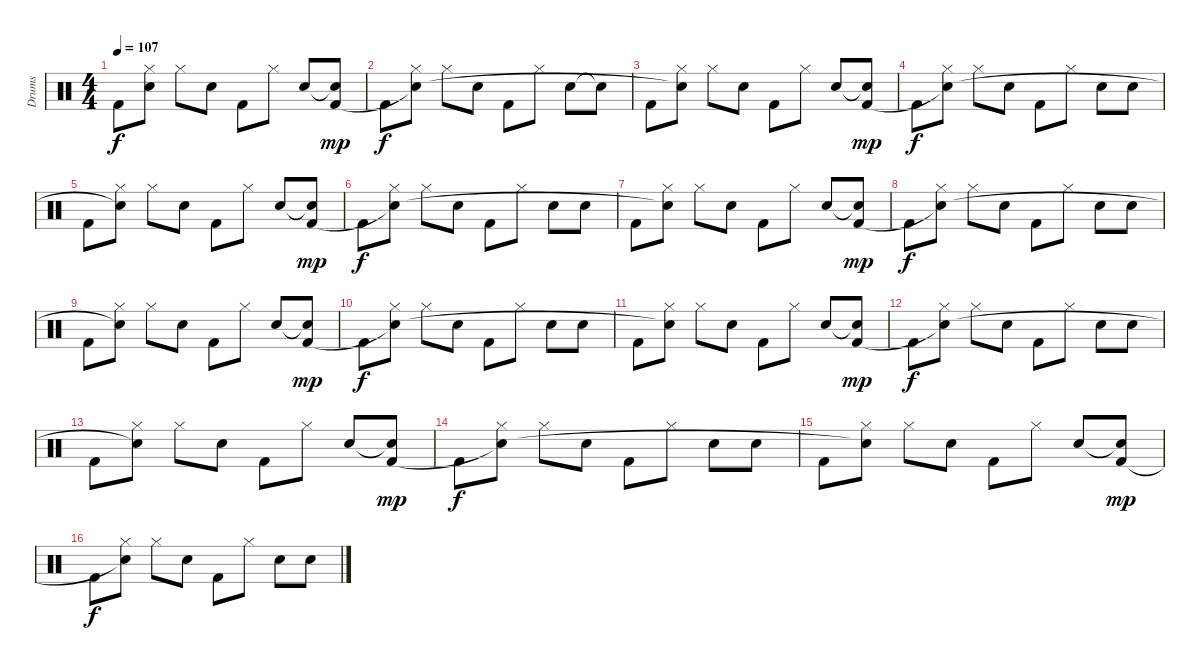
\track ("Drums" "Drums") {instrument percussion}
\staff {score}
\articulation defaults
\ts (4 4)
\tempo 107
\clef neutral
\ks c "Kick (hit) 2".8{dy f}
("Hi-Hat (closed)" "Snare (hit)"{t}).8 "Hi-Hat (closed)".8 "Electric Snare (hit)".8 "Kick (hit) 2".8 "Hi-Hat (closed)".8 "Electric Snare (hit)".8 ("Snare (hit)"{t} "Kick (hit) 2").8{dy mp} |
"Kick (hit) 2".8{dy f} ("Hi-Hat (closed)" "Snare (hit)"{t}).8 "Hi-Hat (closed)".8 "Electric Snare (hit)".8 "Kick (hit) 2".8 "Hi-Hat (closed)".8 "Electric Snare (hit)".8 "Snare (hit)"{t}.8 |
"Kick (hit) 2".8 ("Hi-Hat (closed)" "Snare (hit)"{t}).8 "Hi-Hat (closed)".8 "Electric Snare (hit)".8 "Kick (hit) 2".8 "Hi-Hat (closed)".8 "Electric Snare (hit)".8 ("Snare (hit)"{t} "Kick (hit) 2").8{dy mp} |
"Kick (hit) 2".8{dy f} ("Hi-Hat (closed)" "Snare (hit)"{t}).8 "Hi-Hat (closed)".8 "Electric Snare (hit)".8 "Kick (hit) 2".8 "Hi-Hat (closed)".8 "Electric Snare (hit)".8 "Electric Snare (hit)".8 |
"Kick (hit) 2".8 ("Hi-Hat (closed)" "Snare (hit)"{t}).8 "Hi-Hat (closed)".8 "Electric Snare (hit)".8 "Kick (hit) 2".8 "Hi-Hat (closed)".8 "Electric Snare (hit)".8 ("Snare (hit)"{t} "Kick (hit) 2").8{dy mp} |
"Kick (hit) 2".8{dy f} ("Hi-Hat (closed)" "Snare (hit)"{t}).8 "Hi-Hat (closed)".8 "Electric Snare (hit)".8 "Kick (hit) 2".8 "Hi-Hat (closed)".8 "Electric Snare (hit)".8 "Electric Snare (hit)".8 |
"Kick (hit) 2".8 ("Hi-Hat (closed)" "Snare (hit)"{t}).8 "Hi-Hat (closed)".8 "Electric Snare (hit)".8 "Kick (hit) 2".8 "Hi-Hat (closed)".8 "Electric Snare (hit)".8 ("Snare (hit)"{t} "Kick (hit) 2").8{dy mp} |
"Kick (hit) 2".8{dy f} ("Hi-Hat (closed)" "Snare (hit)"{t}).8 "Hi-Hat (closed)".8 "Electric Snare (hit)".8 "Kick (hit) 2".8 "Hi-Hat (closed)".8 "Electric Snare (hit)".8 "Electric Snare (hit)".8 |
"Kick (hit) 2".8 ("Hi-Hat (closed)" "Snare (hit)"{t}).8 "Hi-Hat (closed)".8 "Electric Snare (hit)".8 "Kick (hit) 2".8 "Hi-Hat (closed)".8 "Electric Snare (hit)".8 ("Snare (hit)"{t} "Kick (hit) 2").8{dy mp} |
"Kick (hit) 2".8{dy f} ("Hi-Hat (closed)" "Snare (hit)"{t}).8 "Hi-Hat (closed)".8 "Electric Snare (hit)".8 "Kick (hit) 2".8 "Hi-Hat (closed)".8 "Electric Snare (hit)".8 "Electric Snare (hit)".8 |
"Kick (hit) 2".8 ("Hi-Hat (closed)" "Snare (hit)"{t}).8 "Hi-Hat (closed)".8 "Electric Snare (hit)".8 "Kick (hit) 2".8 "Hi-Hat (closed)".8 "Electric Snare (hit)".8 ("Snare (hit)"{t} "Kick (hit) 2").8{dy mp} |
"Kick (hit) 2".8{dy f} ("Hi-Hat (closed)" "Snare (hit)"{t}).8 "Hi-Hat (closed)".8 "Electric Snare (hit)".8 "Kick (hit) 2".8 "Hi-Hat (closed)".8 "Electric Snare (hit)".8 "Electric Snare (hit)".8 |
"Kick (hit) 2".8 ("Hi-Hat (closed)" "Snare (hit)"{t}).8 "Hi-Hat (closed)".8 "Electric Snare (hit)".8 "Kick (hit) 2".8 "Hi-Hat (closed)".8 "Electric Snare (hit)".8 ("Snare (hit)"{t} "Kick (hit) 2").8{dy mp} |
"Kick (hit) 2".8{dy f} ("Hi-Hat (closed)" "Snare (hit)"{t}).8 "Hi-Hat (closed)".8 "Electric Snare (hit)".8 "Kick (hit) 2".8 "Hi-Hat (closed)".8 "Electric Snare (hit)".8 "Electric Snare (hit)".8 |
"Kick (hit) 2".8 ("Hi-Hat (closed)" "Snare (hit)"{t}).8 "Hi-Hat (closed)".8 "Electric Snare (hit)".8 "Kick (hit) 2".8 "Hi-Hat (closed)".8 "Electric Snare (hit)".8 ("Snare (hit)"{t} "Kick (hit) 2").8{dy mp} |
"Kick (hit) 2".8{dy f} ("Hi-Hat (closed)" "Snare (hit)"{t}).8 "Hi-Hat (closed)".8 "Electric Snare (hit)".8 "Kick (hit) 2".8 "Hi-Hat (closed)".8 "Electric Snare (hit)".8 "Electric Snare (hit)".8
